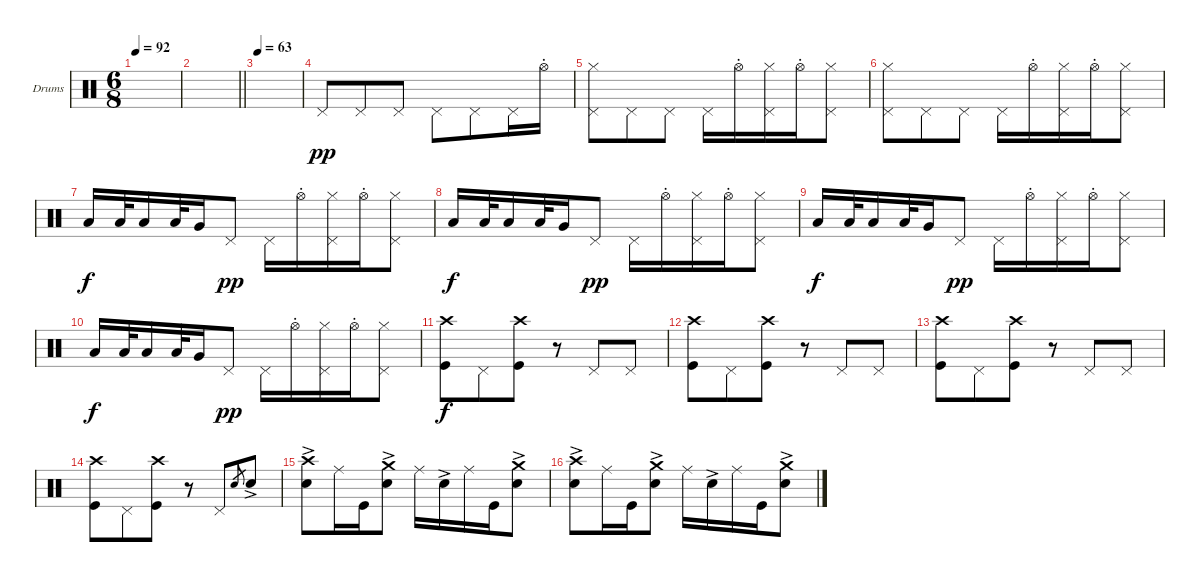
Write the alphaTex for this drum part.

\defaultSystemsLayout 4
\bracketExtendMode groupsimilarinstruments
\firstSystemTrackNameOrientation horizontal
\otherSystemsTrackNameOrientation horizontal
\track ("Drumkit" "Drums") {instrument percussion}
\staff {score}
\articulation defaults
\ts (6 8)
\tempo 92
\clef neutral
\ks c
|
\barLineRight lightlight
|
\tempo 63
|
"Pedal Hi-Hat (hit)".8{dy pp} "Pedal Hi-Hat (hit)".8 "Pedal Hi-Hat (hit)".8 "Pedal Hi-Hat (hit)".8 "Pedal Hi-Hat (hit)".8 "Pedal Hi-Hat (hit)".16 "Hi-Hat (open)"{st}.16 |
("Pedal Hi-Hat (hit)" "Hi-Hat (closed)").8 "Pedal Hi-Hat (hit)".8 "Pedal Hi-Hat (hit)".8 "Pedal Hi-Hat (hit)".16 "Hi-Hat (open)"{st}.16 ("Pedal Hi-Hat (hit)" "Hi-Hat (closed)").16 "Hi-Hat (open)"{st}.16 ("Pedal Hi-Hat (hit)" "Hi-Hat (closed)").8 |
("Pedal Hi-Hat (hit)" "Hi-Hat (closed)").8 "Pedal Hi-Hat (hit)".8 "Pedal Hi-Hat (hit)".8 "Pedal Hi-Hat (hit)".16 "Hi-Hat (open)"{st}.16 ("Pedal Hi-Hat (hit)" "Hi-Hat (closed)").16 "Hi-Hat (open)"{st}.16 ("Pedal Hi-Hat (hit)" "Hi-Hat (closed)").8 |
"Low Tom (hit)".16{dy f} "Low Tom (hit)".32 "Low Tom (hit)".16 "Low Tom (hit)".32 "Very Low Tom (hit)".16 "Pedal Hi-Hat (hit)".8{dy pp} "Pedal Hi-Hat (hit)".16 "Hi-Hat (open)"{st}.16 ("Pedal Hi-Hat (hit)" "Hi-Hat (closed)").16 "Hi-Hat (open)"{st}.16 ("Pedal Hi-Hat (hit)" "Hi-Hat (closed)").8 |
"Low Tom (hit)".16{dy f} "Low Tom (hit)".32 "Low Tom (hit)".16 "Low Tom (hit)".32 "Very Low Tom (hit)".16 "Pedal Hi-Hat (hit)".8{dy pp} "Pedal Hi-Hat (hit)".16 "Hi-Hat (open)"{st}.16 ("Pedal Hi-Hat (hit)" "Hi-Hat (closed)").16 "Hi-Hat (open)"{st}.16 ("Pedal Hi-Hat (hit)" "Hi-Hat (closed)").8 |
"Low Tom (hit)".16{dy f} "Low Tom (hit)".32 "Low Tom (hit)".16 "Low Tom (hit)".32 "Very Low Tom (hit)".16 "Pedal Hi-Hat (hit)".8{dy pp} "Pedal Hi-Hat (hit)".16 "Hi-Hat (open)"{st}.16 ("Pedal Hi-Hat (hit)" "Hi-Hat (closed)").16 "Hi-Hat (open)"{st}.16 ("Pedal Hi-Hat (hit)" "Hi-Hat (closed)").8 |
"Low Tom (hit)".16{dy f} "Low Tom (hit)".32 "Low Tom (hit)".16 "Low Tom (hit)".32 "Very Low Tom (hit)".16 "Pedal Hi-Hat (hit)".8{dy pp} "Pedal Hi-Hat (hit)".16 "Hi-Hat (open)"{st}.16 ("Pedal Hi-Hat (hit)" "Hi-Hat (closed)").16 "Hi-Hat (open)"{st}.16 ("Pedal Hi-Hat (hit)" "Hi-Hat (closed)").8 |
("Kick (hit)" "Crash high (hit)").8{dy f} "Pedal Hi-Hat (hit)".8 ("Crash high (hit)" "Kick (hit)").8 r.8 "Pedal Hi-Hat (hit)".8 "Pedal Hi-Hat (hit)".8 |
("Kick (hit)" "Crash high (hit)").8 "Pedal Hi-Hat (hit)".8 ("Crash high (hit)" "Kick (hit)").8 r.8 "Pedal Hi-Hat (hit)".8 "Pedal Hi-Hat (hit)".8 |
("Kick (hit)" "Crash high (hit)").8 "Pedal Hi-Hat (hit)".8 ("Crash high (hit)" "Kick (hit)").8 r.8 "Pedal Hi-Hat (hit)".8 "Pedal Hi-Hat (hit)".8 |
("Kick (hit)" "Crash high (hit)").8 "Pedal Hi-Hat (hit)".8 ("Crash high (hit)" "Kick (hit)").8 r.8 "Pedal Hi-Hat (hit)".8 "Snare (hit) 2".8{gr} "Snare (hit) 2"{ac}.8 |
("Snare (hit) 2"{ac} "Crash high (hit)").8 "Ride (middle)".16 "Kick (hit)".16 ("Snare (hit) 2"{ac} "Crash medium (hit)").8 "Ride (middle)".16 "Snare (hit) 2"{ac}.16 "Ride (middle)".16 "Kick (hit)".16 ("Snare (hit) 2"{ac} "Crash medium (hit)").8 |
("Snare (hit) 2"{ac} "Crash high (hit)").8 "Ride (middle)".16 "Kick (hit)".16 ("Snare (hit) 2"{ac} "Crash medium (hit)").8 "Ride (middle)".16 "Snare (hit) 2"{ac}.16 "Ride (middle)".16 "Kick (hit)".16 ("Snare (hit) 2"{ac} "Crash medium (hit)").8
